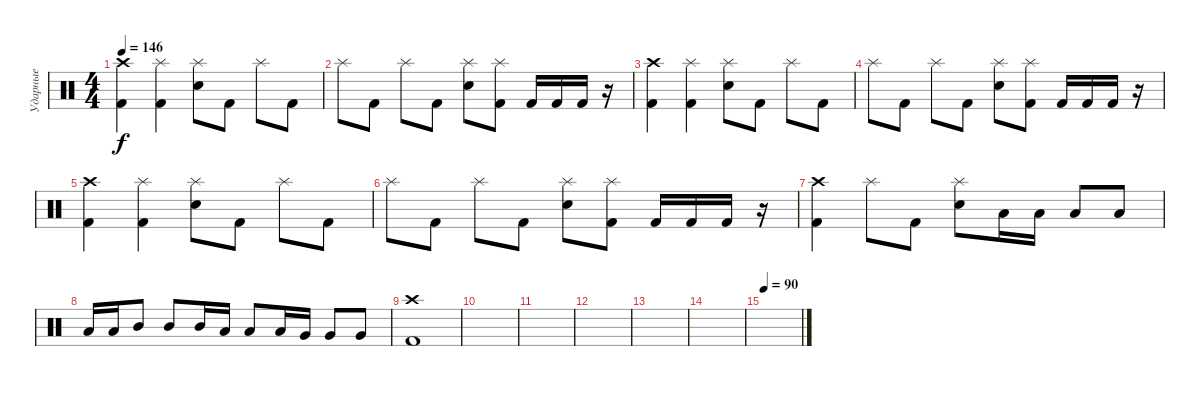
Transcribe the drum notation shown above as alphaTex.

\track ("Ударные" "Ударные") {instrument percussion}
\staff {score}
\articulation defaults
\ts (4 4)
\tempo 146
\clef neutral
\ks c
("Crash high (hit)" "Kick (hit) 2").4{dy f} ("Splash (hit)" "Kick (hit) 2").4 ("Splash (hit)" "Snare (hit) 2").8 "Kick (hit) 2".8 "Splash (hit)".8 "Kick (hit) 2".8 |
"Splash (hit)".8 "Kick (hit) 2".8 "Splash (hit)".8 "Kick (hit) 2".8 ("Splash (hit)" "Snare (hit) 2").8 ("Splash (hit)" "Kick (hit) 2").8 "Kick (hit) 2".16 "Kick (hit) 2".16 "Kick (hit) 2".16 r.16 |
("Crash high (hit)" "Kick (hit) 2").4 ("Splash (hit)" "Kick (hit) 2").4 ("Splash (hit)" "Snare (hit) 2").8 "Kick (hit) 2".8 "Splash (hit)".8 "Kick (hit) 2".8 |
"Splash (hit)".8 "Kick (hit) 2".8 "Splash (hit)".8 "Kick (hit) 2".8 ("Splash (hit)" "Snare (hit) 2").8 ("Splash (hit)" "Kick (hit) 2").8 "Kick (hit) 2".16 "Kick (hit) 2".16 "Kick (hit) 2".16 r.16 |
("Crash high (hit)" "Kick (hit) 2").4 ("Splash (hit)" "Kick (hit) 2").4 ("Splash (hit)" "Snare (hit) 2").8 "Kick (hit) 2".8 "Splash (hit)".8 "Kick (hit) 2".8 |
"Splash (hit)".8 "Kick (hit) 2".8 "Splash (hit)".8 "Kick (hit) 2".8 ("Splash (hit)" "Snare (hit) 2").8 ("Splash (hit)" "Kick (hit) 2").8 "Kick (hit) 2".16 "Kick (hit) 2".16 "Kick (hit) 2".16 r.16 |
("Crash high (hit)" "Kick (hit) 2").4 "Splash (hit)".8 "Kick (hit) 2".8 ("Splash (hit)" "Snare (hit) 2").8 "Low Tom (hit)".16 "Low Tom (hit)".16 "Low Tom (hit)".8 "Low Tom (hit)".8 |
"Low Tom (hit)".16 "Low Tom (hit)".16 "Mid Tom (hit)".8 "Mid Tom (hit)".8 "Mid Tom (hit)".16 "Low Tom (hit)".16 "Low Tom (hit)".8 "Low Tom (hit)".16 "Very Low Tom (hit)".16 "Very Low Tom (hit)".8 "Very Low Tom (hit)".8 |
("Crash high (hit)" "Kick (hit) 2").1 |
|
|
|
|
|
\tempo 90
